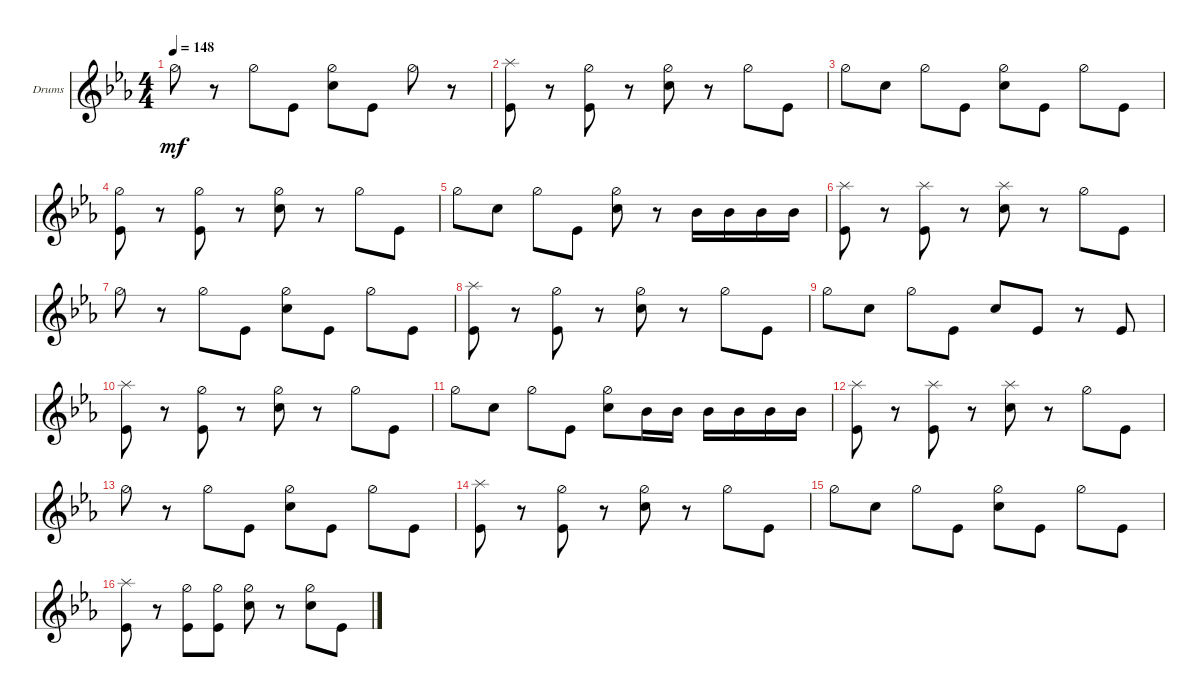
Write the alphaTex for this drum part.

\defaultSystemsLayout 4
\bracketExtendMode groupsimilarinstruments
\firstSystemTrackNameOrientation horizontal
\otherSystemsTrackNameOrientation horizontal
\track ("Drumkit" "Drums") {instrument percussion}
\staff {score}
\articulation defaults
\ts (4 4)
\tempo 148
\clef g2
\ks cminor "Hi-Hat (half)".8{dy mf}
r.8 "Hi-Hat (half)".8 "Kick (hit)".8 ("Hi-Hat (half)" "Snare (hit) 2").8 "Kick (hit)".8 "Hi-Hat (half)".8 r.8 |
("Splash (hit)" "Kick (hit)").8 r.8 ("Hi-Hat (half)" "Kick (hit)").8 r.8 ("Hi-Hat (half)" "Snare (hit) 2").8 r.8 "Hi-Hat (half)".8 "Kick (hit)".8 |
"Hi-Hat (half)".8 "Snare (hit) 2".8 "Hi-Hat (half)".8 "Kick (hit)".8 ("Hi-Hat (half)" "Snare (hit) 2").8 "Kick (hit)".8 "Hi-Hat (half)".8 "Kick (hit)".8 |
("Hi-Hat (half)" "Kick (hit)").8 r.8 ("Hi-Hat (half)" "Kick (hit)").8 r.8 ("Hi-Hat (half)" "Snare (hit) 2").8 r.8 "Hi-Hat (half)".8 "Kick (hit)".8 |
"Hi-Hat (half)".8 "Snare (hit) 2".8 "Hi-Hat (half)".8 "Kick (hit)".8 ("Hi-Hat (half)" "Snare (hit) 2").8 r.8 "Mid Tom (hit)".16 "Mid Tom (hit)".16 "Mid Tom (hit)".16 "Mid Tom (hit)".16 |
("Splash (hit)" "Kick (hit)").8 r.8 ("Kick (hit)" "Splash (hit)").8 r.8 ("Snare (hit) 2" "Splash (hit)").8 r.8 "Hi-Hat (half)".8 "Kick (hit)".8 |
"Hi-Hat (half)".8 r.8 "Hi-Hat (half)".8 "Kick (hit)".8 ("Hi-Hat (half)" "Snare (hit) 2").8 "Kick (hit)".8 "Hi-Hat (half)".8 "Kick (hit)".8 |
("Splash (hit)" "Kick (hit)").8 r.8 ("Hi-Hat (half)" "Kick (hit)").8 r.8 ("Hi-Hat (half)" "Snare (hit) 2").8 r.8 "Hi-Hat (half)".8 "Kick (hit)".8 |
"Hi-Hat (half)".8 "Snare (hit) 2".8 "Hi-Hat (half)".8 "Kick (hit)".8 "Snare (hit) 2".8 "Kick (hit)".8 r.8 "Kick (hit)".8 |
("Splash (hit)" "Kick (hit)").8 r.8 ("Hi-Hat (half)" "Kick (hit)").8 r.8 ("Hi-Hat (half)" "Snare (hit) 2").8 r.8 "Hi-Hat (half)".8 "Kick (hit)".8 |
"Hi-Hat (half)".8 "Snare (hit) 2".8 "Hi-Hat (half)".8 "Kick (hit)".8 ("Hi-Hat (half)" "Snare (hit) 2").8 "Mid Tom (hit)".16 "Mid Tom (hit)".16 "Mid Tom (hit)".16 "Mid Tom (hit)".16 "Mid Tom (hit)".16 "Mid Tom (hit)".16 |
("Splash (hit)" "Kick (hit)").8 r.8 ("Kick (hit)" "Splash (hit)").8 r.8 ("Snare (hit) 2" "Splash (hit)").8 r.8 "Hi-Hat (half)".8 "Kick (hit)".8 |
"Hi-Hat (half)".8 r.8 "Hi-Hat (half)".8 "Kick (hit)".8 ("Hi-Hat (half)" "Snare (hit) 2").8 "Kick (hit)".8 "Hi-Hat (half)".8 "Kick (hit)".8 |
("Splash (hit)" "Kick (hit)").8 r.8 ("Hi-Hat (half)" "Kick (hit)").8 r.8 ("Hi-Hat (half)" "Snare (hit) 2").8 r.8 "Hi-Hat (half)".8 "Kick (hit)".8 |
"Hi-Hat (half)".8 "Snare (hit) 2".8 "Hi-Hat (half)".8 "Kick (hit)".8 ("Snare (hit) 2" "Hi-Hat (half)").8 "Kick (hit)".8 "Hi-Hat (half)".8 "Kick (hit)".8 |
("Kick (hit)" "Splash (hit)").8 r.8 ("Kick (hit)" "Hi-Hat (half)").8 ("Kick (hit)" "Hi-Hat (half)").8 ("Snare (hit) 2" "Hi-Hat (half)").8 r.8 ("Snare (hit) 2" "Hi-Hat (half)").8 "Kick (hit)".8
